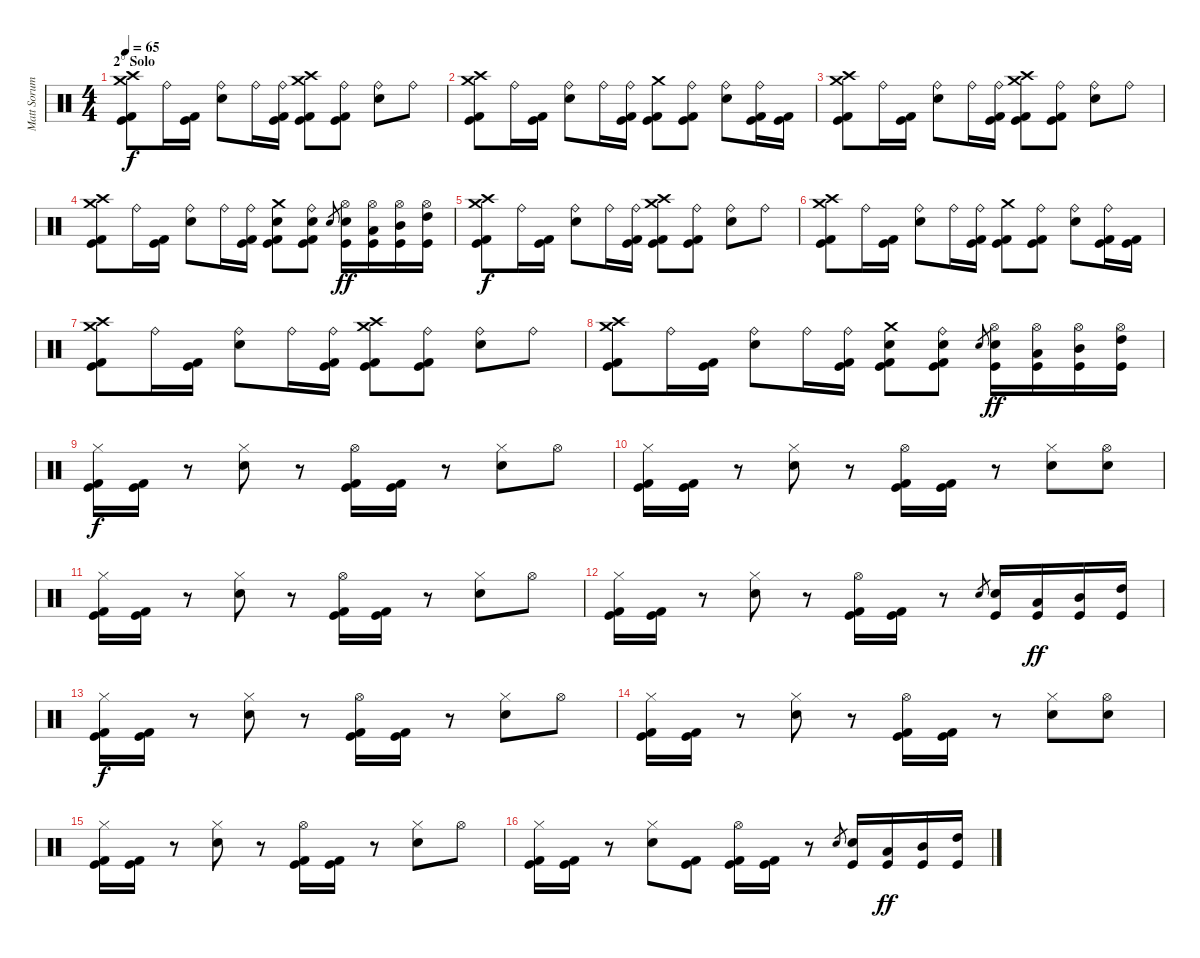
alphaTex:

\track ("Matt Sorum" "Matt Sorum") {instrument percussion}
\staff {score}
\articulation defaults
\ts (4 4)
\section ("" "2° Solo")
\tempo 65
\clef neutral
\ks c
("Crash medium (hit)" "Crash high (hit)" "Kick (hit) 2" "Kick (hit)").8{dy f} "Ride (bell)".16 ("Kick (hit) 2" "Kick (hit)").16 ("Ride (bell)" "Electric Snare (hit)").8 "Ride (bell)".16 ("Ride (bell)" "Kick (hit) 2" "Kick (hit)").16 ("Crash medium (hit)" "Crash high (hit)" "Kick (hit) 2" "Kick (hit)").8 ("Ride (bell)" "Kick (hit) 2" "Kick (hit)").8 ("Ride (bell)" "Electric Snare (hit)").8 "Ride (bell)".8 |
("Crash medium (hit)" "Crash high (hit)" "Kick (hit) 2" "Kick (hit)").8 "Ride (bell)".16 ("Kick (hit) 2" "Kick (hit)").16 ("Ride (bell)" "Electric Snare (hit)").8 "Ride (bell)".16 ("Ride (bell)" "Kick (hit) 2" "Kick (hit)").16 ("Crash medium (hit)" "Kick (hit) 2" "Kick (hit)").8 ("Ride (bell)" "Kick (hit) 2" "Kick (hit)").8 ("Ride (bell)" "Electric Snare (hit)").8 ("Ride (bell)" "Kick (hit) 2" "Kick (hit)").16 ("Kick (hit) 2" "Kick (hit)").16 |
("Crash medium (hit)" "Crash high (hit)" "Kick (hit) 2" "Kick (hit)").8 "Ride (bell)".16 ("Kick (hit) 2" "Kick (hit)").16 ("Ride (bell)" "Electric Snare (hit)").8 "Ride (bell)".16 ("Ride (bell)" "Kick (hit) 2" "Kick (hit)").16 ("Crash medium (hit)" "Crash high (hit)" "Kick (hit) 2" "Kick (hit)").8 ("Ride (bell)" "Kick (hit) 2" "Kick (hit)").8 ("Ride (bell)" "Electric Snare (hit)").8 "Ride (bell)".8 |
("Crash medium (hit)" "Crash high (hit)" "Kick (hit) 2" "Kick (hit)").8 "Ride (bell)".16 ("Kick (hit) 2" "Kick (hit)").16 ("Ride (bell)" "Electric Snare (hit)").8 "Ride (bell)".16 ("Ride (bell)" "Kick (hit) 2" "Kick (hit)").16 ("Crash medium (hit)" "Electric Snare (hit)" "Kick (hit) 2" "Kick (hit)").8 ("Ride (bell)" "Electric Snare (hit)" "Kick (hit) 2" "Kick (hit)").8 "Electric Snare (hit)".8{gr} ("Hi-Hat (open)" "Electric Snare (hit)" "Kick (hit)").16{dy ff} ("Hi-Hat (open)" "Low Tom (hit)" "Kick (hit)").16 ("Hi-Hat (open)" "Mid Tom (hit)" "Kick (hit)").16 ("Hi-Hat (open)" "High Tom (hit)" "Kick (hit)").16 |
("Crash medium (hit)" "Crash high (hit)" "Kick (hit) 2" "Kick (hit)").8{dy f} "Ride (bell)".16 ("Kick (hit) 2" "Kick (hit)").16 ("Ride (bell)" "Electric Snare (hit)").8 "Ride (bell)".16 ("Ride (bell)" "Kick (hit) 2" "Kick (hit)").16 ("Crash medium (hit)" "Crash high (hit)" "Kick (hit) 2" "Kick (hit)").8 ("Ride (bell)" "Kick (hit) 2" "Kick (hit)").8 ("Ride (bell)" "Electric Snare (hit)").8 "Ride (bell)".8 |
("Crash medium (hit)" "Crash high (hit)" "Kick (hit) 2" "Kick (hit)").8 "Ride (bell)".16 ("Kick (hit) 2" "Kick (hit)").16 ("Ride (bell)" "Electric Snare (hit)").8 "Ride (bell)".16 ("Ride (bell)" "Kick (hit) 2" "Kick (hit)").16 ("Crash medium (hit)" "Kick (hit) 2" "Kick (hit)").8 ("Ride (bell)" "Kick (hit) 2" "Kick (hit)").8 ("Ride (bell)" "Electric Snare (hit)").8 ("Ride (bell)" "Kick (hit) 2" "Kick (hit)").16 ("Kick (hit) 2" "Kick (hit)").16 |
("Crash medium (hit)" "Crash high (hit)" "Kick (hit) 2" "Kick (hit)").8 "Ride (bell)".16 ("Kick (hit) 2" "Kick (hit)").16 ("Ride (bell)" "Electric Snare (hit)").8 "Ride (bell)".16 ("Ride (bell)" "Kick (hit) 2" "Kick (hit)").16 ("Crash medium (hit)" "Crash high (hit)" "Kick (hit) 2" "Kick (hit)").8 ("Ride (bell)" "Kick (hit) 2" "Kick (hit)").8 ("Ride (bell)" "Electric Snare (hit)").8 "Ride (bell)".8 |
("Crash medium (hit)" "Crash high (hit)" "Kick (hit) 2" "Kick (hit)").8 "Ride (bell)".16 ("Kick (hit) 2" "Kick (hit)").16 ("Ride (bell)" "Electric Snare (hit)").8 "Ride (bell)".16 ("Ride (bell)" "Kick (hit) 2" "Kick (hit)").16 ("Crash medium (hit)" "Electric Snare (hit)" "Kick (hit) 2" "Kick (hit)").8 ("Ride (bell)" "Electric Snare (hit)" "Kick (hit) 2" "Kick (hit)").8 "Electric Snare (hit)".8{gr} ("Hi-Hat (open)" "Electric Snare (hit)" "Kick (hit)").16{dy ff} ("Hi-Hat (open)" "Low Tom (hit)" "Kick (hit)").16 ("Hi-Hat (open)" "Mid Tom (hit)" "Kick (hit)").16 ("Hi-Hat (open)" "High Tom (hit)" "Kick (hit)").16 |
("Hi-Hat (closed)" "Kick (hit) 2" "Kick (hit)").16{dy f} ("Kick (hit) 2" "Kick (hit)").16 r.8 ("Hi-Hat (closed)" "Electric Snare (hit)").8 r.8 ("Hi-Hat (open)" "Kick (hit) 2" "Kick (hit)").16 ("Kick (hit) 2" "Kick (hit)").16 r.8 ("Hi-Hat (closed)" "Electric Snare (hit)").8 "Hi-Hat (open)".8 |
("Hi-Hat (closed)" "Kick (hit) 2" "Kick (hit)").16 ("Kick (hit) 2" "Kick (hit)").16 r.8 ("Hi-Hat (closed)" "Electric Snare (hit)").8 r.8 ("Hi-Hat (open)" "Kick (hit) 2" "Kick (hit)").16 ("Kick (hit) 2" "Kick (hit)").16 r.8 ("Hi-Hat (closed)" "Electric Snare (hit)").8 ("Hi-Hat (open)" "Electric Snare (hit)").8 |
("Hi-Hat (closed)" "Kick (hit) 2" "Kick (hit)").16 ("Kick (hit) 2" "Kick (hit)").16 r.8 ("Hi-Hat (closed)" "Electric Snare (hit)").8 r.8 ("Hi-Hat (open)" "Kick (hit) 2" "Kick (hit)").16 ("Kick (hit) 2" "Kick (hit)").16 r.8 ("Hi-Hat (closed)" "Electric Snare (hit)").8 "Hi-Hat (open)".8 |
("Hi-Hat (closed)" "Kick (hit) 2" "Kick (hit)").16 ("Kick (hit) 2" "Kick (hit)").16 r.8 ("Hi-Hat (closed)" "Electric Snare (hit)").8 r.8 ("Hi-Hat (open)" "Kick (hit) 2" "Kick (hit)").16 ("Kick (hit) 2" "Kick (hit)").16 r.8 "Electric Snare (hit)".8{gr} ("Electric Snare (hit)" "Kick (hit)").16 ("Low Tom (hit)" "Kick (hit)").16{dy ff} ("Mid Tom (hit)" "Kick (hit)").16 ("High Tom (hit)" "Kick (hit)").16 |
("Hi-Hat (closed)" "Kick (hit) 2" "Kick (hit)").16{dy f} ("Kick (hit) 2" "Kick (hit)").16 r.8 ("Hi-Hat (closed)" "Electric Snare (hit)").8 r.8 ("Hi-Hat (open)" "Kick (hit) 2" "Kick (hit)").16 ("Kick (hit) 2" "Kick (hit)").16 r.8 ("Hi-Hat (closed)" "Electric Snare (hit)").8 "Hi-Hat (open)".8 |
("Hi-Hat (closed)" "Kick (hit) 2" "Kick (hit)").16 ("Kick (hit) 2" "Kick (hit)").16 r.8 ("Hi-Hat (closed)" "Electric Snare (hit)").8 r.8 ("Hi-Hat (open)" "Kick (hit) 2" "Kick (hit)").16 ("Kick (hit) 2" "Kick (hit)").16 r.8 ("Hi-Hat (closed)" "Electric Snare (hit)").8 ("Hi-Hat (open)" "Electric Snare (hit)").8 |
("Hi-Hat (closed)" "Kick (hit) 2" "Kick (hit)").16 ("Kick (hit) 2" "Kick (hit)").16 r.8 ("Hi-Hat (closed)" "Electric Snare (hit)").8 r.8 ("Hi-Hat (open)" "Kick (hit) 2" "Kick (hit)").16 ("Kick (hit) 2" "Kick (hit)").16 r.8 ("Hi-Hat (closed)" "Electric Snare (hit)").8 "Hi-Hat (open)".8 |
("Hi-Hat (closed)" "Kick (hit) 2" "Kick (hit)").16 ("Kick (hit) 2" "Kick (hit)").16 r.8 ("Hi-Hat (closed)" "Electric Snare (hit)").8 ("Kick (hit) 2" "Kick (hit)").8 ("Hi-Hat (open)" "Kick (hit) 2" "Kick (hit)").16 ("Kick (hit) 2" "Kick (hit)").16 r.8 "Electric Snare (hit)".8{gr} ("Electric Snare (hit)" "Kick (hit)").16 ("Low Tom (hit)" "Kick (hit)").16{dy ff} ("Mid Tom (hit)" "Kick (hit)").16 ("High Tom (hit)" "Kick (hit)").16
